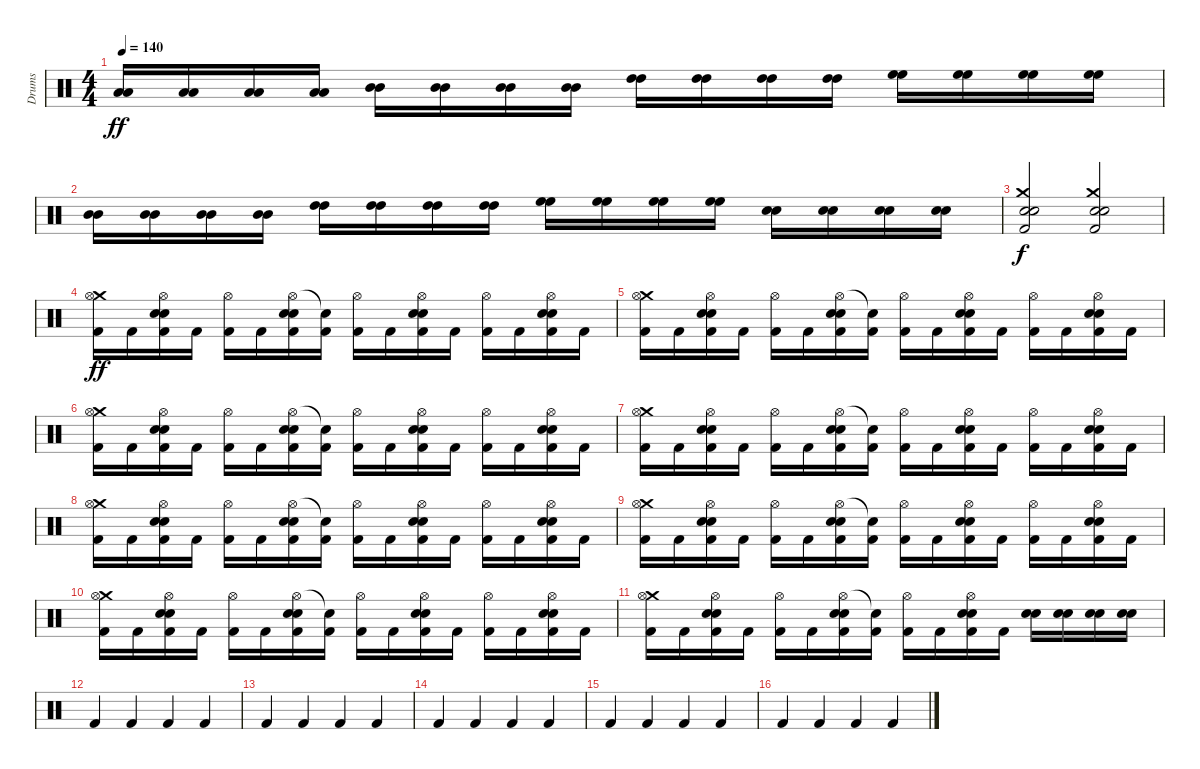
\track ("Drums" "Drums") {instrument percussion}
\staff {score}
\articulation defaults
\ts (4 4)
\tempo 140
\clef neutral
\ks c
("Low Tom (hit)" "Low Tom (hit)").16{dy ff} ("Low Tom (hit)" "Low Tom (hit)").16 ("Low Tom (hit)" "Low Tom (hit)").16 ("Low Tom (hit)" "Low Tom (hit)").16 ("Mid Tom (hit)" "Mid Tom (hit)").16 ("Mid Tom (hit)" "Mid Tom (hit)").16 ("Mid Tom (hit)" "Mid Tom (hit)").16 ("Mid Tom (hit)" "Mid Tom (hit)").16 ("High Tom (hit)" "High Tom (hit)").16 ("High Tom (hit)" "High Tom (hit)").16 ("High Tom (hit)" "High Tom (hit)").16 ("High Tom (hit)" "High Tom (hit)").16 ("High Floor Tom (hit)" "High Floor Tom (hit)").16 ("High Floor Tom (hit)" "High Floor Tom (hit)").16 ("High Floor Tom (hit)" "High Floor Tom (hit)").16 ("High Floor Tom (hit)" "High Floor Tom (hit)").16 |
("Mid Tom (hit)" "Mid Tom (hit)").16 ("Mid Tom (hit)" "Mid Tom (hit)").16 ("Mid Tom (hit)" "Mid Tom (hit)").16 ("Mid Tom (hit)" "Mid Tom (hit)").16 ("High Tom (hit)" "High Tom (hit)").16 ("High Tom (hit)" "High Tom (hit)").16 ("High Tom (hit)" "High Tom (hit)").16 ("High Tom (hit)" "High Tom (hit)").16 ("High Floor Tom (hit)" "High Floor Tom (hit)").16 ("High Floor Tom (hit)" "High Floor Tom (hit)").16 ("High Floor Tom (hit)" "High Floor Tom (hit)").16 ("High Floor Tom (hit)" "High Floor Tom (hit)").16 ("Electric Snare (hit)" "Electric Snare (hit)").16 ("Electric Snare (hit)" "Electric Snare (hit)").16 ("Electric Snare (hit)" "Electric Snare (hit)").16 ("Electric Snare (hit)" "Electric Snare (hit)").16 |
("Crash medium (hit)" "Electric Snare (hit)" "Electric Snare (hit)" "Kick (hit) 2").2{dy f} ("Crash medium (hit)" "Electric Snare (hit)" "Electric Snare (hit)" "Kick (hit) 2").2 |
("Crash medium (hit)" "Hi-Hat (open)" "Kick (hit) 2").16{dy ff} "Kick (hit) 2".16 ("Hi-Hat (open)" "Electric Snare (hit)" "Electric Snare (hit)" "Kick (hit) 2").16 "Kick (hit) 2".16 ("Hi-Hat (open)" "Kick (hit) 2").16 "Kick (hit) 2".16 ("Hi-Hat (open)" "Electric Snare (hit)" "Electric Snare (hit)" "Kick (hit) 2").16 ("Snare (hit)"{t} "Kick (hit) 2").16 ("Hi-Hat (open)" "Kick (hit) 2").16 "Kick (hit) 2".16 ("Hi-Hat (open)" "Electric Snare (hit)" "Electric Snare (hit)" "Kick (hit) 2").16 "Kick (hit) 2".16 ("Hi-Hat (open)" "Kick (hit) 2").16 "Kick (hit) 2".16 ("Hi-Hat (open)" "Electric Snare (hit)" "Electric Snare (hit)" "Kick (hit) 2").16 "Kick (hit) 2".16 |
("Crash medium (hit)" "Hi-Hat (open)" "Kick (hit) 2").16 "Kick (hit) 2".16 ("Hi-Hat (open)" "Electric Snare (hit)" "Electric Snare (hit)" "Kick (hit) 2").16 "Kick (hit) 2".16 ("Hi-Hat (open)" "Kick (hit) 2").16 "Kick (hit) 2".16 ("Hi-Hat (open)" "Electric Snare (hit)" "Electric Snare (hit)" "Kick (hit) 2").16 ("Snare (hit)"{t} "Kick (hit) 2").16 ("Hi-Hat (open)" "Kick (hit) 2").16 "Kick (hit) 2".16 ("Hi-Hat (open)" "Electric Snare (hit)" "Electric Snare (hit)" "Kick (hit) 2").16 "Kick (hit) 2".16 ("Hi-Hat (open)" "Kick (hit) 2").16 "Kick (hit) 2".16 ("Hi-Hat (open)" "Electric Snare (hit)" "Electric Snare (hit)" "Kick (hit) 2").16 "Kick (hit) 2".16 |
("Crash medium (hit)" "Hi-Hat (open)" "Kick (hit) 2").16 "Kick (hit) 2".16 ("Hi-Hat (open)" "Electric Snare (hit)" "Electric Snare (hit)" "Kick (hit) 2").16 "Kick (hit) 2".16 ("Hi-Hat (open)" "Kick (hit) 2").16 "Kick (hit) 2".16 ("Hi-Hat (open)" "Electric Snare (hit)" "Electric Snare (hit)" "Kick (hit) 2").16 ("Snare (hit)"{t} "Kick (hit) 2").16 ("Hi-Hat (open)" "Kick (hit) 2").16 "Kick (hit) 2".16 ("Hi-Hat (open)" "Electric Snare (hit)" "Electric Snare (hit)" "Kick (hit) 2").16 "Kick (hit) 2".16 ("Hi-Hat (open)" "Kick (hit) 2").16 "Kick (hit) 2".16 ("Hi-Hat (open)" "Electric Snare (hit)" "Electric Snare (hit)" "Kick (hit) 2").16 "Kick (hit) 2".16 |
("Crash medium (hit)" "Hi-Hat (open)" "Kick (hit) 2").16 "Kick (hit) 2".16 ("Hi-Hat (open)" "Electric Snare (hit)" "Electric Snare (hit)" "Kick (hit) 2").16 "Kick (hit) 2".16 ("Hi-Hat (open)" "Kick (hit) 2").16 "Kick (hit) 2".16 ("Hi-Hat (open)" "Electric Snare (hit)" "Electric Snare (hit)" "Kick (hit) 2").16 ("Snare (hit)"{t} "Kick (hit) 2").16 ("Hi-Hat (open)" "Kick (hit) 2").16 "Kick (hit) 2".16 ("Hi-Hat (open)" "Electric Snare (hit)" "Electric Snare (hit)" "Kick (hit) 2").16 "Kick (hit) 2".16 ("Hi-Hat (open)" "Kick (hit) 2").16 "Kick (hit) 2".16 ("Hi-Hat (open)" "Electric Snare (hit)" "Electric Snare (hit)" "Kick (hit) 2").16 "Kick (hit) 2".16 |
("Crash medium (hit)" "Hi-Hat (open)" "Kick (hit) 2").16 "Kick (hit) 2".16 ("Hi-Hat (open)" "Electric Snare (hit)" "Electric Snare (hit)" "Kick (hit) 2").16 "Kick (hit) 2".16 ("Hi-Hat (open)" "Kick (hit) 2").16 "Kick (hit) 2".16 ("Hi-Hat (open)" "Electric Snare (hit)" "Electric Snare (hit)" "Kick (hit) 2").16 ("Snare (hit)"{t} "Kick (hit) 2").16 ("Hi-Hat (open)" "Kick (hit) 2").16 "Kick (hit) 2".16 ("Hi-Hat (open)" "Electric Snare (hit)" "Electric Snare (hit)" "Kick (hit) 2").16 "Kick (hit) 2".16 ("Hi-Hat (open)" "Kick (hit) 2").16 "Kick (hit) 2".16 ("Hi-Hat (open)" "Electric Snare (hit)" "Electric Snare (hit)" "Kick (hit) 2").16 "Kick (hit) 2".16 |
("Crash medium (hit)" "Hi-Hat (open)" "Kick (hit) 2").16 "Kick (hit) 2".16 ("Hi-Hat (open)" "Electric Snare (hit)" "Electric Snare (hit)" "Kick (hit) 2").16 "Kick (hit) 2".16 ("Hi-Hat (open)" "Kick (hit) 2").16 "Kick (hit) 2".16 ("Hi-Hat (open)" "Electric Snare (hit)" "Electric Snare (hit)" "Kick (hit) 2").16 ("Snare (hit)"{t} "Kick (hit) 2").16 ("Hi-Hat (open)" "Kick (hit) 2").16 "Kick (hit) 2".16 ("Hi-Hat (open)" "Electric Snare (hit)" "Electric Snare (hit)" "Kick (hit) 2").16 "Kick (hit) 2".16 ("Hi-Hat (open)" "Kick (hit) 2").16 "Kick (hit) 2".16 ("Hi-Hat (open)" "Electric Snare (hit)" "Electric Snare (hit)" "Kick (hit) 2").16 "Kick (hit) 2".16 |
("Crash medium (hit)" "Hi-Hat (open)" "Kick (hit) 2").16 "Kick (hit) 2".16 ("Hi-Hat (open)" "Electric Snare (hit)" "Electric Snare (hit)" "Kick (hit) 2").16 "Kick (hit) 2".16 ("Hi-Hat (open)" "Kick (hit) 2").16 "Kick (hit) 2".16 ("Hi-Hat (open)" "Electric Snare (hit)" "Electric Snare (hit)" "Kick (hit) 2").16 ("Snare (hit)"{t} "Kick (hit) 2").16 ("Hi-Hat (open)" "Kick (hit) 2").16 "Kick (hit) 2".16 ("Hi-Hat (open)" "Electric Snare (hit)" "Electric Snare (hit)" "Kick (hit) 2").16 "Kick (hit) 2".16 ("Hi-Hat (open)" "Kick (hit) 2").16 "Kick (hit) 2".16 ("Hi-Hat (open)" "Electric Snare (hit)" "Electric Snare (hit)" "Kick (hit) 2").16 "Kick (hit) 2".16 |
("Crash medium (hit)" "Hi-Hat (open)" "Kick (hit) 2").16 "Kick (hit) 2".16 ("Hi-Hat (open)" "Electric Snare (hit)" "Electric Snare (hit)" "Kick (hit) 2").16 "Kick (hit) 2".16 ("Hi-Hat (open)" "Kick (hit) 2").16 "Kick (hit) 2".16 ("Hi-Hat (open)" "Electric Snare (hit)" "Electric Snare (hit)" "Kick (hit) 2").16 ("Snare (hit)"{t} "Kick (hit) 2").16 ("Hi-Hat (open)" "Kick (hit) 2").16 "Kick (hit) 2".16 ("Hi-Hat (open)" "Electric Snare (hit)" "Electric Snare (hit)" "Kick (hit) 2").16 "Kick (hit) 2".16 ("Electric Snare (hit)" "Electric Snare (hit)").16 ("Electric Snare (hit)" "Electric Snare (hit)").16 ("Electric Snare (hit)" "Electric Snare (hit)").16 ("Electric Snare (hit)" "Electric Snare (hit)").16 |
"Kick (hit) 2".4 "Kick (hit) 2".4 "Kick (hit) 2".4 "Kick (hit) 2".4 |
"Kick (hit) 2".4 "Kick (hit) 2".4 "Kick (hit) 2".4 "Kick (hit) 2".4 |
"Kick (hit) 2".4 "Kick (hit) 2".4 "Kick (hit) 2".4 "Kick (hit) 2".4 |
"Kick (hit) 2".4 "Kick (hit) 2".4 "Kick (hit) 2".4 "Kick (hit) 2".4 |
"Kick (hit) 2".4 "Kick (hit) 2".4 "Kick (hit) 2".4 "Kick (hit) 2".4
